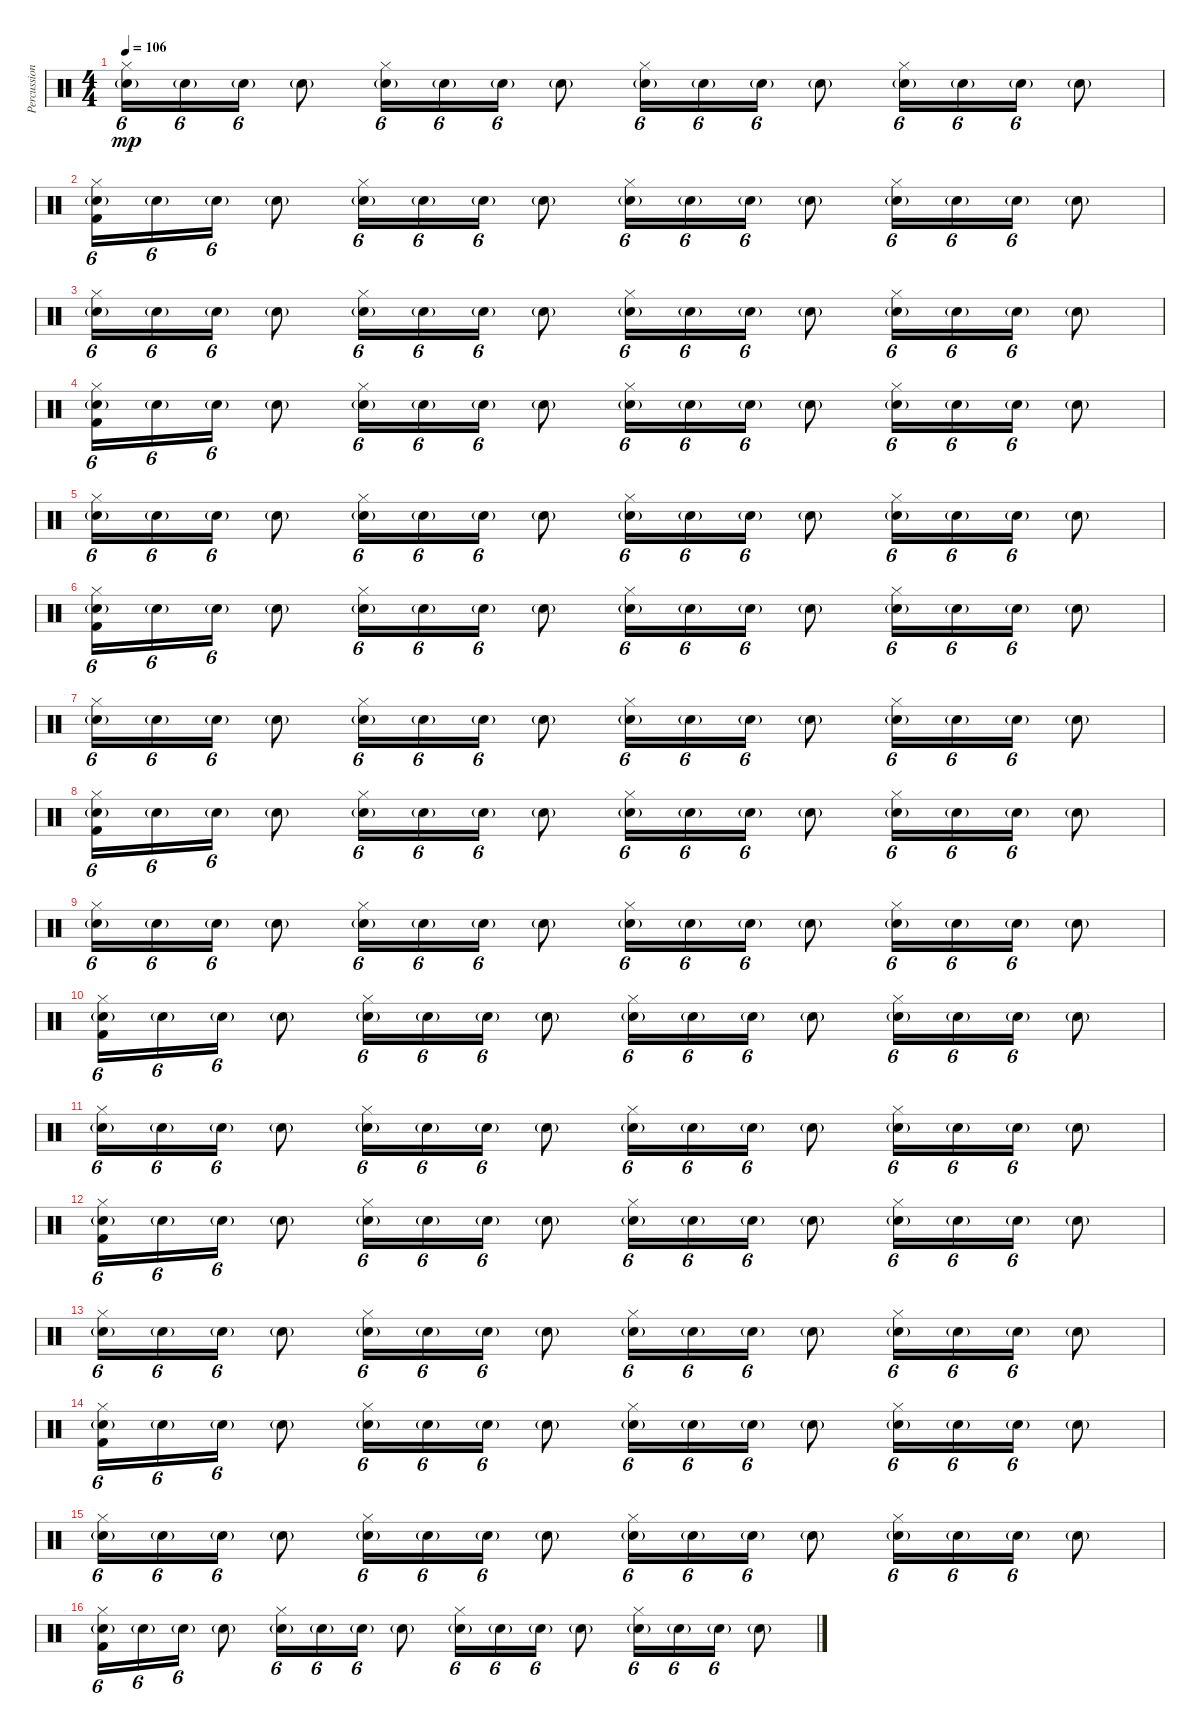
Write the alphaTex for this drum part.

\track ("Percussions" "Percussion") {instrument percussion}
\staff {score}
\articulation defaults
\ts (4 4)
\tempo 106
\clef neutral
\ks c
("Hi-Hat (closed)" "Electric Snare (hit)"{g}).16{tu (6 4) dy mp} "Electric Snare (hit)"{g}.16{tu (6 4)} "Electric Snare (hit)"{g}.16{tu (6 4)} "Electric Snare (hit)"{g}.8 ("Hi-Hat (closed)" "Electric Snare (hit)"{g}).16{tu (6 4)} "Electric Snare (hit)"{g}.16{tu (6 4)} "Electric Snare (hit)"{g}.16{tu (6 4)} "Electric Snare (hit)"{g}.8 ("Hi-Hat (closed)" "Electric Snare (hit)"{g}).16{tu (6 4)} "Electric Snare (hit)"{g}.16{tu (6 4)} "Electric Snare (hit)"{g}.16{tu (6 4)} "Electric Snare (hit)"{g}.8 ("Hi-Hat (closed)" "Electric Snare (hit)"{g}).16{tu (6 4)} "Electric Snare (hit)"{g}.16{tu (6 4)} "Electric Snare (hit)"{g}.16{tu (6 4)} "Electric Snare (hit)"{g}.8 |
("Hi-Hat (closed)" "Electric Snare (hit)"{g} "Kick (hit) 2").16{tu (6 4)} "Electric Snare (hit)"{g}.16{tu (6 4)} "Electric Snare (hit)"{g}.16{tu (6 4)} "Electric Snare (hit)"{g}.8 ("Hi-Hat (closed)" "Electric Snare (hit)"{g}).16{tu (6 4)} "Electric Snare (hit)"{g}.16{tu (6 4)} "Electric Snare (hit)"{g}.16{tu (6 4)} "Electric Snare (hit)"{g}.8 ("Hi-Hat (closed)" "Electric Snare (hit)"{g}).16{tu (6 4)} "Electric Snare (hit)"{g}.16{tu (6 4)} "Electric Snare (hit)"{g}.16{tu (6 4)} "Electric Snare (hit)"{g}.8 ("Hi-Hat (closed)" "Electric Snare (hit)"{g}).16{tu (6 4)} "Electric Snare (hit)"{g}.16{tu (6 4)} "Electric Snare (hit)"{g}.16{tu (6 4)} "Electric Snare (hit)"{g}.8 |
("Hi-Hat (closed)" "Electric Snare (hit)"{g}).16{tu (6 4)} "Electric Snare (hit)"{g}.16{tu (6 4)} "Electric Snare (hit)"{g}.16{tu (6 4)} "Electric Snare (hit)"{g}.8 ("Hi-Hat (closed)" "Electric Snare (hit)"{g}).16{tu (6 4)} "Electric Snare (hit)"{g}.16{tu (6 4)} "Electric Snare (hit)"{g}.16{tu (6 4)} "Electric Snare (hit)"{g}.8 ("Hi-Hat (closed)" "Electric Snare (hit)"{g}).16{tu (6 4)} "Electric Snare (hit)"{g}.16{tu (6 4)} "Electric Snare (hit)"{g}.16{tu (6 4)} "Electric Snare (hit)"{g}.8 ("Hi-Hat (closed)" "Electric Snare (hit)"{g}).16{tu (6 4)} "Electric Snare (hit)"{g}.16{tu (6 4)} "Electric Snare (hit)"{g}.16{tu (6 4)} "Electric Snare (hit)"{g}.8 |
("Hi-Hat (closed)" "Electric Snare (hit)"{g} "Kick (hit) 2").16{tu (6 4)} "Electric Snare (hit)"{g}.16{tu (6 4)} "Electric Snare (hit)"{g}.16{tu (6 4)} "Electric Snare (hit)"{g}.8 ("Hi-Hat (closed)" "Electric Snare (hit)"{g}).16{tu (6 4)} "Electric Snare (hit)"{g}.16{tu (6 4)} "Electric Snare (hit)"{g}.16{tu (6 4)} "Electric Snare (hit)"{g}.8 ("Hi-Hat (closed)" "Electric Snare (hit)"{g}).16{tu (6 4)} "Electric Snare (hit)"{g}.16{tu (6 4)} "Electric Snare (hit)"{g}.16{tu (6 4)} "Electric Snare (hit)"{g}.8 ("Hi-Hat (closed)" "Electric Snare (hit)"{g}).16{tu (6 4)} "Electric Snare (hit)"{g}.16{tu (6 4)} "Electric Snare (hit)"{g}.16{tu (6 4)} "Electric Snare (hit)"{g}.8 |
("Hi-Hat (closed)" "Electric Snare (hit)"{g}).16{tu (6 4)} "Electric Snare (hit)"{g}.16{tu (6 4)} "Electric Snare (hit)"{g}.16{tu (6 4)} "Electric Snare (hit)"{g}.8 ("Hi-Hat (closed)" "Electric Snare (hit)"{g}).16{tu (6 4)} "Electric Snare (hit)"{g}.16{tu (6 4)} "Electric Snare (hit)"{g}.16{tu (6 4)} "Electric Snare (hit)"{g}.8 ("Hi-Hat (closed)" "Electric Snare (hit)"{g}).16{tu (6 4)} "Electric Snare (hit)"{g}.16{tu (6 4)} "Electric Snare (hit)"{g}.16{tu (6 4)} "Electric Snare (hit)"{g}.8 ("Hi-Hat (closed)" "Electric Snare (hit)"{g}).16{tu (6 4)} "Electric Snare (hit)"{g}.16{tu (6 4)} "Electric Snare (hit)"{g}.16{tu (6 4)} "Electric Snare (hit)"{g}.8 |
("Hi-Hat (closed)" "Electric Snare (hit)"{g} "Kick (hit) 2").16{tu (6 4)} "Electric Snare (hit)"{g}.16{tu (6 4)} "Electric Snare (hit)"{g}.16{tu (6 4)} "Electric Snare (hit)"{g}.8 ("Hi-Hat (closed)" "Electric Snare (hit)"{g}).16{tu (6 4)} "Electric Snare (hit)"{g}.16{tu (6 4)} "Electric Snare (hit)"{g}.16{tu (6 4)} "Electric Snare (hit)"{g}.8 ("Hi-Hat (closed)" "Electric Snare (hit)"{g}).16{tu (6 4)} "Electric Snare (hit)"{g}.16{tu (6 4)} "Electric Snare (hit)"{g}.16{tu (6 4)} "Electric Snare (hit)"{g}.8 ("Hi-Hat (closed)" "Electric Snare (hit)"{g}).16{tu (6 4)} "Electric Snare (hit)"{g}.16{tu (6 4)} "Electric Snare (hit)"{g}.16{tu (6 4)} "Electric Snare (hit)"{g}.8 |
("Hi-Hat (closed)" "Electric Snare (hit)"{g}).16{tu (6 4)} "Electric Snare (hit)"{g}.16{tu (6 4)} "Electric Snare (hit)"{g}.16{tu (6 4)} "Electric Snare (hit)"{g}.8 ("Hi-Hat (closed)" "Electric Snare (hit)"{g}).16{tu (6 4)} "Electric Snare (hit)"{g}.16{tu (6 4)} "Electric Snare (hit)"{g}.16{tu (6 4)} "Electric Snare (hit)"{g}.8 ("Hi-Hat (closed)" "Electric Snare (hit)"{g}).16{tu (6 4)} "Electric Snare (hit)"{g}.16{tu (6 4)} "Electric Snare (hit)"{g}.16{tu (6 4)} "Electric Snare (hit)"{g}.8 ("Hi-Hat (closed)" "Electric Snare (hit)"{g}).16{tu (6 4)} "Electric Snare (hit)"{g}.16{tu (6 4)} "Electric Snare (hit)"{g}.16{tu (6 4)} "Electric Snare (hit)"{g}.8 |
("Hi-Hat (closed)" "Electric Snare (hit)"{g} "Kick (hit) 2").16{tu (6 4)} "Electric Snare (hit)"{g}.16{tu (6 4)} "Electric Snare (hit)"{g}.16{tu (6 4)} "Electric Snare (hit)"{g}.8 ("Hi-Hat (closed)" "Electric Snare (hit)"{g}).16{tu (6 4)} "Electric Snare (hit)"{g}.16{tu (6 4)} "Electric Snare (hit)"{g}.16{tu (6 4)} "Electric Snare (hit)"{g}.8 ("Hi-Hat (closed)" "Electric Snare (hit)"{g}).16{tu (6 4)} "Electric Snare (hit)"{g}.16{tu (6 4)} "Electric Snare (hit)"{g}.16{tu (6 4)} "Electric Snare (hit)"{g}.8 ("Hi-Hat (closed)" "Electric Snare (hit)"{g}).16{tu (6 4)} "Electric Snare (hit)"{g}.16{tu (6 4)} "Electric Snare (hit)"{g}.16{tu (6 4)} "Electric Snare (hit)"{g}.8 |
("Hi-Hat (closed)" "Electric Snare (hit)"{g}).16{tu (6 4)} "Electric Snare (hit)"{g}.16{tu (6 4)} "Electric Snare (hit)"{g}.16{tu (6 4)} "Electric Snare (hit)"{g}.8 ("Hi-Hat (closed)" "Electric Snare (hit)"{g}).16{tu (6 4)} "Electric Snare (hit)"{g}.16{tu (6 4)} "Electric Snare (hit)"{g}.16{tu (6 4)} "Electric Snare (hit)"{g}.8 ("Hi-Hat (closed)" "Electric Snare (hit)"{g}).16{tu (6 4)} "Electric Snare (hit)"{g}.16{tu (6 4)} "Electric Snare (hit)"{g}.16{tu (6 4)} "Electric Snare (hit)"{g}.8 ("Hi-Hat (closed)" "Electric Snare (hit)"{g}).16{tu (6 4)} "Electric Snare (hit)"{g}.16{tu (6 4)} "Electric Snare (hit)"{g}.16{tu (6 4)} "Electric Snare (hit)"{g}.8 |
("Hi-Hat (closed)" "Electric Snare (hit)"{g} "Kick (hit) 2").16{tu (6 4)} "Electric Snare (hit)"{g}.16{tu (6 4)} "Electric Snare (hit)"{g}.16{tu (6 4)} "Electric Snare (hit)"{g}.8 ("Hi-Hat (closed)" "Electric Snare (hit)"{g}).16{tu (6 4)} "Electric Snare (hit)"{g}.16{tu (6 4)} "Electric Snare (hit)"{g}.16{tu (6 4)} "Electric Snare (hit)"{g}.8 ("Hi-Hat (closed)" "Electric Snare (hit)"{g}).16{tu (6 4)} "Electric Snare (hit)"{g}.16{tu (6 4)} "Electric Snare (hit)"{g}.16{tu (6 4)} "Electric Snare (hit)"{g}.8 ("Hi-Hat (closed)" "Electric Snare (hit)"{g}).16{tu (6 4)} "Electric Snare (hit)"{g}.16{tu (6 4)} "Electric Snare (hit)"{g}.16{tu (6 4)} "Electric Snare (hit)"{g}.8 |
("Hi-Hat (closed)" "Electric Snare (hit)"{g}).16{tu (6 4)} "Electric Snare (hit)"{g}.16{tu (6 4)} "Electric Snare (hit)"{g}.16{tu (6 4)} "Electric Snare (hit)"{g}.8 ("Hi-Hat (closed)" "Electric Snare (hit)"{g}).16{tu (6 4)} "Electric Snare (hit)"{g}.16{tu (6 4)} "Electric Snare (hit)"{g}.16{tu (6 4)} "Electric Snare (hit)"{g}.8 ("Hi-Hat (closed)" "Electric Snare (hit)"{g}).16{tu (6 4)} "Electric Snare (hit)"{g}.16{tu (6 4)} "Electric Snare (hit)"{g}.16{tu (6 4)} "Electric Snare (hit)"{g}.8 ("Hi-Hat (closed)" "Electric Snare (hit)"{g}).16{tu (6 4)} "Electric Snare (hit)"{g}.16{tu (6 4)} "Electric Snare (hit)"{g}.16{tu (6 4)} "Electric Snare (hit)"{g}.8 |
("Hi-Hat (closed)" "Electric Snare (hit)"{g} "Kick (hit) 2").16{tu (6 4)} "Electric Snare (hit)"{g}.16{tu (6 4)} "Electric Snare (hit)"{g}.16{tu (6 4)} "Electric Snare (hit)"{g}.8 ("Hi-Hat (closed)" "Electric Snare (hit)"{g}).16{tu (6 4)} "Electric Snare (hit)"{g}.16{tu (6 4)} "Electric Snare (hit)"{g}.16{tu (6 4)} "Electric Snare (hit)"{g}.8 ("Hi-Hat (closed)" "Electric Snare (hit)"{g}).16{tu (6 4)} "Electric Snare (hit)"{g}.16{tu (6 4)} "Electric Snare (hit)"{g}.16{tu (6 4)} "Electric Snare (hit)"{g}.8 ("Hi-Hat (closed)" "Electric Snare (hit)"{g}).16{tu (6 4)} "Electric Snare (hit)"{g}.16{tu (6 4)} "Electric Snare (hit)"{g}.16{tu (6 4)} "Electric Snare (hit)"{g}.8 |
("Hi-Hat (closed)" "Electric Snare (hit)"{g}).16{tu (6 4)} "Electric Snare (hit)"{g}.16{tu (6 4)} "Electric Snare (hit)"{g}.16{tu (6 4)} "Electric Snare (hit)"{g}.8 ("Hi-Hat (closed)" "Electric Snare (hit)"{g}).16{tu (6 4)} "Electric Snare (hit)"{g}.16{tu (6 4)} "Electric Snare (hit)"{g}.16{tu (6 4)} "Electric Snare (hit)"{g}.8 ("Hi-Hat (closed)" "Electric Snare (hit)"{g}).16{tu (6 4)} "Electric Snare (hit)"{g}.16{tu (6 4)} "Electric Snare (hit)"{g}.16{tu (6 4)} "Electric Snare (hit)"{g}.8 ("Hi-Hat (closed)" "Electric Snare (hit)"{g}).16{tu (6 4)} "Electric Snare (hit)"{g}.16{tu (6 4)} "Electric Snare (hit)"{g}.16{tu (6 4)} "Electric Snare (hit)"{g}.8 |
("Hi-Hat (closed)" "Electric Snare (hit)"{g} "Kick (hit) 2").16{tu (6 4)} "Electric Snare (hit)"{g}.16{tu (6 4)} "Electric Snare (hit)"{g}.16{tu (6 4)} "Electric Snare (hit)"{g}.8 ("Hi-Hat (closed)" "Electric Snare (hit)"{g}).16{tu (6 4)} "Electric Snare (hit)"{g}.16{tu (6 4)} "Electric Snare (hit)"{g}.16{tu (6 4)} "Electric Snare (hit)"{g}.8 ("Hi-Hat (closed)" "Electric Snare (hit)"{g}).16{tu (6 4)} "Electric Snare (hit)"{g}.16{tu (6 4)} "Electric Snare (hit)"{g}.16{tu (6 4)} "Electric Snare (hit)"{g}.8 ("Hi-Hat (closed)" "Electric Snare (hit)"{g}).16{tu (6 4)} "Electric Snare (hit)"{g}.16{tu (6 4)} "Electric Snare (hit)"{g}.16{tu (6 4)} "Electric Snare (hit)"{g}.8 |
("Hi-Hat (closed)" "Electric Snare (hit)"{g}).16{tu (6 4)} "Electric Snare (hit)"{g}.16{tu (6 4)} "Electric Snare (hit)"{g}.16{tu (6 4)} "Electric Snare (hit)"{g}.8 ("Hi-Hat (closed)" "Electric Snare (hit)"{g}).16{tu (6 4)} "Electric Snare (hit)"{g}.16{tu (6 4)} "Electric Snare (hit)"{g}.16{tu (6 4)} "Electric Snare (hit)"{g}.8 ("Hi-Hat (closed)" "Electric Snare (hit)"{g}).16{tu (6 4)} "Electric Snare (hit)"{g}.16{tu (6 4)} "Electric Snare (hit)"{g}.16{tu (6 4)} "Electric Snare (hit)"{g}.8 ("Hi-Hat (closed)" "Electric Snare (hit)"{g}).16{tu (6 4)} "Electric Snare (hit)"{g}.16{tu (6 4)} "Electric Snare (hit)"{g}.16{tu (6 4)} "Electric Snare (hit)"{g}.8 |
("Hi-Hat (closed)" "Electric Snare (hit)"{g} "Kick (hit) 2").16{tu (6 4)} "Electric Snare (hit)"{g}.16{tu (6 4)} "Electric Snare (hit)"{g}.16{tu (6 4)} "Electric Snare (hit)"{g}.8 ("Hi-Hat (closed)" "Electric Snare (hit)"{g}).16{tu (6 4)} "Electric Snare (hit)"{g}.16{tu (6 4)} "Electric Snare (hit)"{g}.16{tu (6 4)} "Electric Snare (hit)"{g}.8 ("Hi-Hat (closed)" "Electric Snare (hit)"{g}).16{tu (6 4)} "Electric Snare (hit)"{g}.16{tu (6 4)} "Electric Snare (hit)"{g}.16{tu (6 4)} "Electric Snare (hit)"{g}.8 ("Hi-Hat (closed)" "Electric Snare (hit)"{g}).16{tu (6 4)} "Electric Snare (hit)"{g}.16{tu (6 4)} "Electric Snare (hit)"{g}.16{tu (6 4)} "Electric Snare (hit)"{g}.8
